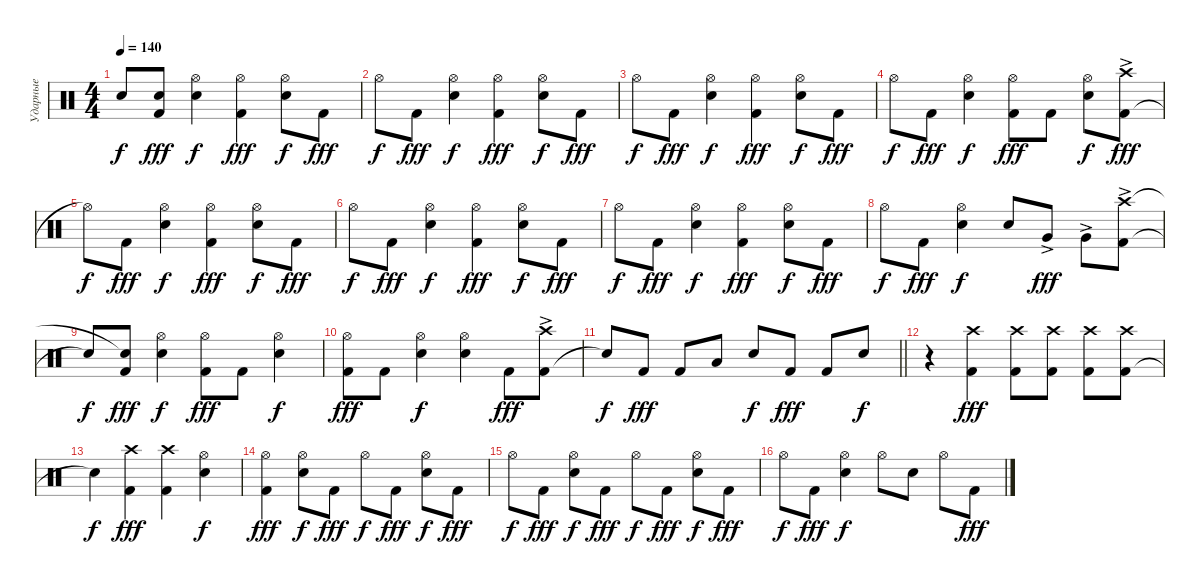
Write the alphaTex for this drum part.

\track ("Ударные" "Ударные") {instrument percussion}
\staff {score}
\articulation defaults
\ts (4 4)
\tempo 140
\clef neutral
\ks c "Snare (hit)"{t}.8{dy f}
("Kick (hit) 2" "Snare (hit)"{t}).8{dy fff} ("Snare (hit) 2" "Hi-Hat (open)").4{dy f} ("Kick (hit) 2" "Hi-Hat (open)").4{dy fff} ("Snare (hit) 2" "Hi-Hat (open)").8{dy f} "Kick (hit) 2".8{dy fff} |
"Hi-Hat (open)".8{dy f} "Kick (hit) 2".8{dy fff} ("Snare (hit) 2" "Hi-Hat (open)").4{dy f} ("Kick (hit) 2" "Hi-Hat (open)").4{dy fff} ("Snare (hit) 2" "Hi-Hat (open)").8{dy f} "Kick (hit) 2".8{dy fff} |
"Hi-Hat (open)".8{dy f} "Kick (hit) 2".8{dy fff} ("Snare (hit) 2" "Hi-Hat (open)").4{dy f} ("Kick (hit) 2" "Hi-Hat (open)").4{dy fff} ("Snare (hit) 2" "Hi-Hat (open)").8{dy f} "Kick (hit) 2".8{dy fff} |
"Hi-Hat (open)".8{dy f} "Kick (hit) 2".8{dy fff} ("Snare (hit) 2" "Hi-Hat (open)").4{dy f} ("Kick (hit) 2" "Hi-Hat (open)").8{dy fff} "Kick (hit) 2".8 ("Snare (hit) 2" "Hi-Hat (open)").8{dy f} ("Kick (hit) 2" "Crash high (hit)"{ac}).8{dy fff} |
"Hi-Hat (open)"{t}.8{dy f} "Kick (hit) 2".8{dy fff} ("Snare (hit) 2" "Hi-Hat (open)").4{dy f} ("Kick (hit) 2" "Hi-Hat (open)").4{dy fff} ("Snare (hit) 2" "Hi-Hat (open)").8{dy f} "Kick (hit) 2".8{dy fff} |
"Hi-Hat (open)".8{dy f} "Kick (hit) 2".8{dy fff} ("Snare (hit) 2" "Hi-Hat (open)").4{dy f} ("Kick (hit) 2" "Hi-Hat (open)").4{dy fff} ("Snare (hit) 2" "Hi-Hat (open)").8{dy f} "Kick (hit) 2".8{dy fff} |
"Hi-Hat (open)".8{dy f} "Kick (hit) 2".8{dy fff} ("Snare (hit) 2" "Hi-Hat (open)").4{dy f} ("Kick (hit) 2" "Hi-Hat (open)").4{dy fff} ("Snare (hit) 2" "Hi-Hat (open)").8{dy f} "Kick (hit) 2".8{dy fff} |
"Hi-Hat (open)".8{dy f} "Kick (hit) 2".8{dy fff} ("Snare (hit) 2" "Hi-Hat (open)").4{dy f} "Snare (hit) 2".8 "Very Low Tom (hit)"{ac}.8{dy fff} "Very Low Tom (hit)"{ac}.8 ("Kick (hit) 2"{ac} "Crash high (hit)").8 |
"Snare (hit)"{t}.8{dy f} ("Kick (hit) 2" "Snare (hit)"{t}).8{dy fff} ("Snare (hit) 2" "Hi-Hat (open)").4{dy f} ("Kick (hit) 2" "Hi-Hat (open)").8{dy fff} "Kick (hit) 2".8 ("Snare (hit) 2" "Hi-Hat (open)").4{dy f} |
("Kick (hit) 2" "Hi-Hat (open)").8{dy fff} "Kick (hit) 2".8 ("Snare (hit) 2" "Hi-Hat (open)").4{dy f} ("Snare (hit) 2" "Hi-Hat (open)").4 "Kick (hit) 2".8{dy fff} ("Kick (hit) 2"{ac} "Crash high (hit)"{ac}).8 |
\barLineRight lightlight "Snare (hit)"{t}.8{dy f} "Kick (hit) 2".8{dy fff} "Kick (hit) 2".8 "Low Tom (hit)".8 "Snare (hit) 2".8{dy f} "Kick (hit) 2".8{dy fff} "Kick (hit) 2".8 "Snare (hit) 2".8{dy f}
|
r.4 ("Kick (hit) 2" "Crash high (hit)").4{dy fff} ("Kick (hit) 2" "Crash high (hit)").8 ("Kick (hit) 2" "Crash high (hit)").8 ("Kick (hit) 2" "Crash high (hit)").8 ("Kick (hit) 2" "Crash high (hit)").8 |
"Snare (hit)"{t}.4{dy f} ("Kick (hit) 2" "Crash high (hit)").4{dy fff} ("Kick (hit) 2" "Crash high (hit)").4 ("Snare (hit) 2" "Hi-Hat (open)").4{dy f} |
("Kick (hit) 2" "Hi-Hat (open)").4{dy fff} ("Snare (hit) 2" "Hi-Hat (open)").8{dy f} "Kick (hit) 2".8{dy fff} "Hi-Hat (open)".8{dy f} "Kick (hit) 2".8{dy fff} ("Snare (hit) 2" "Hi-Hat (open)").8{dy f} "Kick (hit) 2".8{dy fff} |
"Hi-Hat (open)".8{dy f} "Kick (hit) 2".8{dy fff} ("Snare (hit) 2" "Hi-Hat (open)").8{dy f} "Kick (hit) 2".8{dy fff} "Hi-Hat (open)".8{dy f} "Kick (hit) 2".8{dy fff} ("Snare (hit) 2" "Hi-Hat (open)").8{dy f} "Kick (hit) 2".8{dy fff} |
"Hi-Hat (open)".8{dy f} "Kick (hit) 2".8{dy fff} ("Snare (hit) 2" "Hi-Hat (open)").4{dy f} "Hi-Hat (open)".8 "Snare (hit) 2".8 "Hi-Hat (open)".8 "Kick (hit) 2".8{dy fff}
